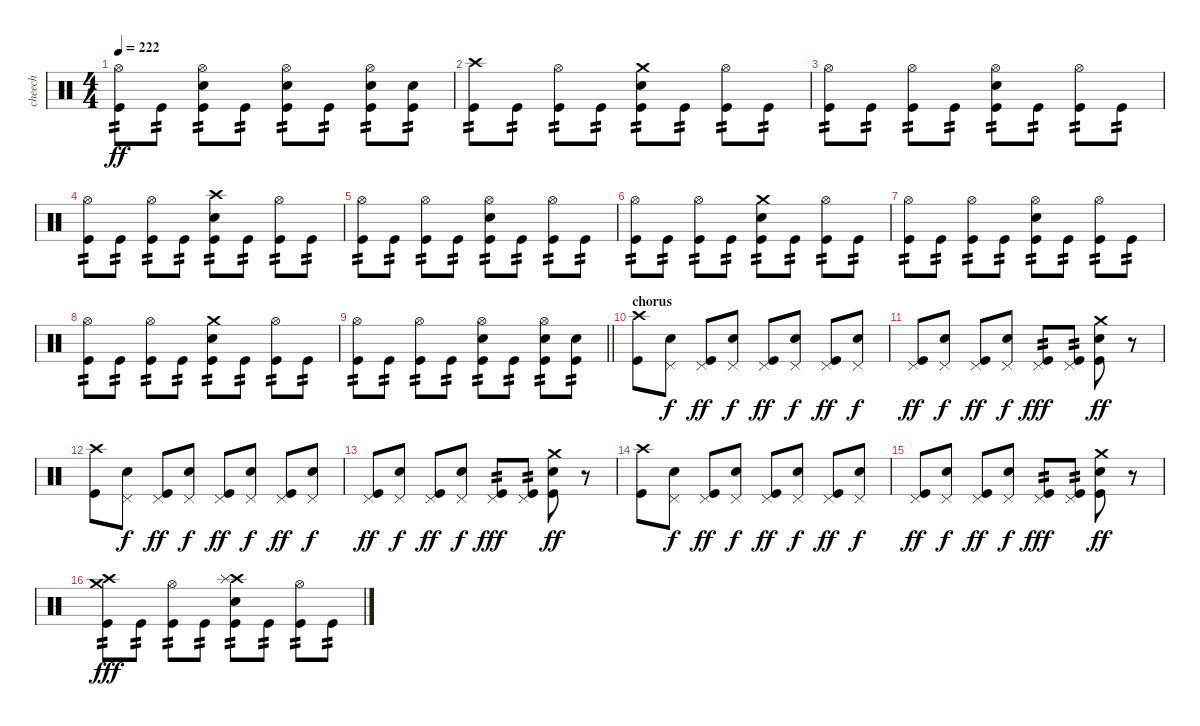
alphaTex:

\track ("cheech" "cheech") {instrument percussion}
\staff {score}
\articulation defaults
\ts (4 4)
\tempo 222
\clef neutral
\ks c
("Hi-Hat (open)" "Kick (hit)").8{tp 2 dy ff} "Kick (hit)".8{tp 2} ("Hi-Hat (open)" "Electric Snare (hit)" "Kick (hit)").8{tp 2} "Kick (hit)".8{tp 2} ("Hi-Hat (open)" "Electric Snare (hit)" "Kick (hit)").8{tp 2} "Kick (hit)".8{tp 2} ("Hi-Hat (open)" "Electric Snare (hit)" "Kick (hit)").8{tp 2} ("Electric Snare (hit)" "Kick (hit)").8{tp 2} |
("Crash high (hit)" "Kick (hit)").8{tp 2} "Kick (hit)".8{tp 2} ("Hi-Hat (open)" "Kick (hit)").8{tp 2} "Kick (hit)".8{tp 2} ("Crash medium (hit)" "Electric Snare (hit)" "Kick (hit)").8{tp 2} "Kick (hit)".8{tp 2} ("Hi-Hat (open)" "Kick (hit)").8{tp 2} "Kick (hit)".8{tp 2} |
("Hi-Hat (open)" "Kick (hit)").8{tp 2} "Kick (hit)".8{tp 2} ("Hi-Hat (open)" "Kick (hit)").8{tp 2} "Kick (hit)".8{tp 2} ("Hi-Hat (open)" "Electric Snare (hit)" "Kick (hit)").8{tp 2} "Kick (hit)".8{tp 2} ("Hi-Hat (open)" "Kick (hit)").8{tp 2} "Kick (hit)".8{tp 2} |
("Hi-Hat (open)" "Kick (hit)").8{tp 2} "Kick (hit)".8{tp 2} ("Hi-Hat (open)" "Kick (hit)").8{tp 2} "Kick (hit)".8{tp 2} ("Crash high (hit)" "Electric Snare (hit)" "Kick (hit)").8{tp 2} "Kick (hit)".8{tp 2} ("Hi-Hat (open)" "Kick (hit)").8{tp 2} "Kick (hit)".8{tp 2} |
("Hi-Hat (open)" "Kick (hit)").8{tp 2} "Kick (hit)".8{tp 2} ("Hi-Hat (open)" "Kick (hit)").8{tp 2} "Kick (hit)".8{tp 2} ("Hi-Hat (open)" "Electric Snare (hit)" "Kick (hit)").8{tp 2} "Kick (hit)".8{tp 2} ("Hi-Hat (open)" "Kick (hit)").8{tp 2} "Kick (hit)".8{tp 2} |
("Hi-Hat (open)" "Kick (hit)").8{tp 2} "Kick (hit)".8{tp 2} ("Hi-Hat (open)" "Kick (hit)").8{tp 2} "Kick (hit)".8{tp 2} ("Crash medium (hit)" "Electric Snare (hit)" "Kick (hit)").8{tp 2} "Kick (hit)".8{tp 2} ("Hi-Hat (open)" "Kick (hit)").8{tp 2} "Kick (hit)".8{tp 2} |
("Hi-Hat (open)" "Kick (hit)").8{tp 2} "Kick (hit)".8{tp 2} ("Hi-Hat (open)" "Kick (hit)").8{tp 2} "Kick (hit)".8{tp 2} ("Hi-Hat (open)" "Electric Snare (hit)" "Kick (hit)").8{tp 2} "Kick (hit)".8{tp 2} ("Hi-Hat (open)" "Kick (hit)").8{tp 2} "Kick (hit)".8{tp 2} |
("Hi-Hat (open)" "Kick (hit)").8{tp 2} "Kick (hit)".8{tp 2} ("Hi-Hat (open)" "Kick (hit)").8{tp 2} "Kick (hit)".8{tp 2} ("Crash medium (hit)" "Electric Snare (hit)" "Kick (hit)").8{tp 2} "Kick (hit)".8{tp 2} ("Hi-Hat (open)" "Kick (hit)").8{tp 2} "Kick (hit)".8{tp 2} |
\barLineRight lightlight
("Hi-Hat (open)" "Kick (hit)").8{tp 2} "Kick (hit)".8{tp 2} ("Hi-Hat (open)" "Kick (hit)").8{tp 2} "Kick (hit)".8{tp 2} ("Hi-Hat (open)" "Electric Snare (hit)" "Kick (hit)").8{tp 2} "Kick (hit)".8{tp 2} ("Hi-Hat (open)" "Electric Snare (hit)" "Kick (hit)").8{tp 2} ("Electric Snare (hit)" "Kick (hit)").8{tp 2} |
\section ("" "chorus")
("Crash high (hit)" "Kick (hit)").8 ("Pedal Hi-Hat (hit)" "Electric Snare (hit)").8{dy f} ("Pedal Hi-Hat (hit)" "Kick (hit)").8{dy ff} ("Pedal Hi-Hat (hit)" "Electric Snare (hit)").8{dy f} ("Pedal Hi-Hat (hit)" "Kick (hit)").8{dy ff} ("Pedal Hi-Hat (hit)" "Electric Snare (hit)").8{dy f} ("Pedal Hi-Hat (hit)" "Kick (hit)").8{dy ff} ("Pedal Hi-Hat (hit)" "Electric Snare (hit)").8{dy f} |
("Pedal Hi-Hat (hit)" "Kick (hit)").8{dy ff} ("Pedal Hi-Hat (hit)" "Electric Snare (hit)").8{dy f} ("Pedal Hi-Hat (hit)" "Kick (hit)").8{dy ff} ("Pedal Hi-Hat (hit)" "Electric Snare (hit)").8{dy f} ("Pedal Hi-Hat (hit)" "Kick (hit)").8{tp 2 dy fff} ("Pedal Hi-Hat (hit)" "Kick (hit)").8{tp 2} ("Crash medium (hit)" "Electric Snare (hit)" "Kick (hit)").8{dy ff} r.8 |
("Crash high (hit)" "Kick (hit)").8 ("Pedal Hi-Hat (hit)" "Electric Snare (hit)").8{dy f} ("Pedal Hi-Hat (hit)" "Kick (hit)").8{dy ff} ("Pedal Hi-Hat (hit)" "Electric Snare (hit)").8{dy f} ("Pedal Hi-Hat (hit)" "Kick (hit)").8{dy ff} ("Pedal Hi-Hat (hit)" "Electric Snare (hit)").8{dy f} ("Pedal Hi-Hat (hit)" "Kick (hit)").8{dy ff} ("Pedal Hi-Hat (hit)" "Electric Snare (hit)").8{dy f} |
("Pedal Hi-Hat (hit)" "Kick (hit)").8{dy ff} ("Pedal Hi-Hat (hit)" "Electric Snare (hit)").8{dy f} ("Pedal Hi-Hat (hit)" "Kick (hit)").8{dy ff} ("Pedal Hi-Hat (hit)" "Electric Snare (hit)").8{dy f} ("Pedal Hi-Hat (hit)" "Kick (hit)").8{tp 2 dy fff} ("Pedal Hi-Hat (hit)" "Kick (hit)").8{tp 2} ("Crash medium (hit)" "Electric Snare (hit)" "Kick (hit)").8{dy ff} r.8 |
("Crash high (hit)" "Kick (hit)").8 ("Pedal Hi-Hat (hit)" "Electric Snare (hit)").8{dy f} ("Pedal Hi-Hat (hit)" "Kick (hit)").8{dy ff} ("Pedal Hi-Hat (hit)" "Electric Snare (hit)").8{dy f} ("Pedal Hi-Hat (hit)" "Kick (hit)").8{dy ff} ("Pedal Hi-Hat (hit)" "Electric Snare (hit)").8{dy f} ("Pedal Hi-Hat (hit)" "Kick (hit)").8{dy ff} ("Pedal Hi-Hat (hit)" "Electric Snare (hit)").8{dy f} |
("Pedal Hi-Hat (hit)" "Kick (hit)").8{dy ff} ("Pedal Hi-Hat (hit)" "Electric Snare (hit)").8{dy f} ("Pedal Hi-Hat (hit)" "Kick (hit)").8{dy ff} ("Pedal Hi-Hat (hit)" "Electric Snare (hit)").8{dy f} ("Pedal Hi-Hat (hit)" "Kick (hit)").8{tp 2 dy fff} ("Pedal Hi-Hat (hit)" "Kick (hit)").8{tp 2} ("Crash medium (hit)" "Electric Snare (hit)" "Kick (hit)").8{dy ff} r.8 |
("Crash medium (hit)" "Crash high (hit)" "Kick (hit)").8{tp 2 dy fff} "Kick (hit)".8{tp 2} ("Hi-Hat (open)" "Kick (hit)").8{tp 2} "Kick (hit)".8{tp 2} ("Crash high (hit)" "Splash (hit)" "Electric Snare (hit)" "Kick (hit)").8{tp 2} "Kick (hit)".8{tp 2} ("Hi-Hat (open)" "Kick (hit)").8{tp 2} "Kick (hit)".8{tp 2}
